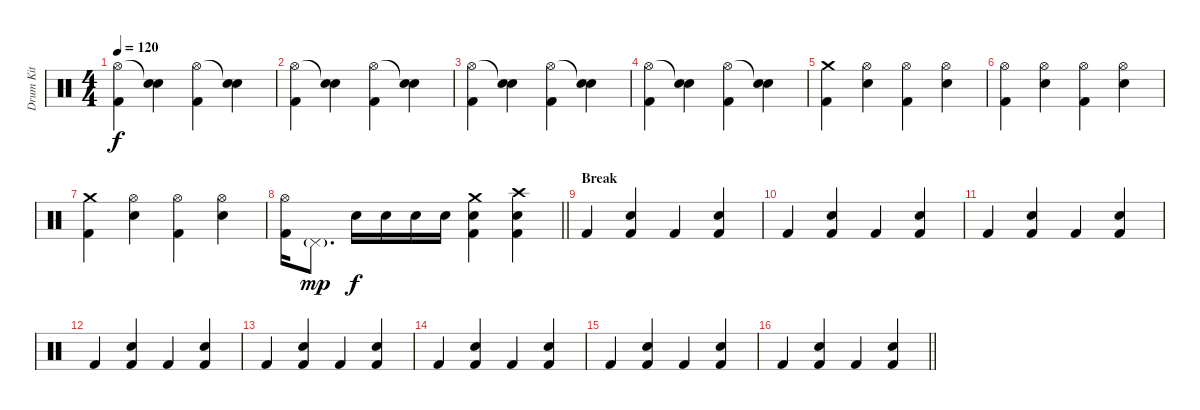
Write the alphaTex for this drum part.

\track ("Drum Kit" "Drum Kit") {instrument percussion}
\staff {score}
\articulation defaults
\ts (4 4)
\tempo 120
\clef neutral
\ks c
("Hi-Hat (open)" "Kick (hit) 2").4{dy f} ("Snare (hit)"{t} "Electric Snare (hit)").4 ("Hi-Hat (open)" "Kick (hit) 2").4 ("Snare (hit)"{t} "Electric Snare (hit)").4 |
("Hi-Hat (open)" "Kick (hit) 2").4 ("Snare (hit)"{t} "Electric Snare (hit)").4 ("Hi-Hat (open)" "Kick (hit) 2").4 ("Snare (hit)"{t} "Electric Snare (hit)").4 |
("Hi-Hat (open)" "Kick (hit) 2").4 ("Snare (hit)"{t} "Electric Snare (hit)").4 ("Hi-Hat (open)" "Kick (hit) 2").4 ("Snare (hit)"{t} "Electric Snare (hit)").4 |
("Hi-Hat (open)" "Kick (hit) 2").4 ("Snare (hit)"{t} "Electric Snare (hit)").4 ("Hi-Hat (open)" "Kick (hit) 2").4 ("Snare (hit)"{t} "Electric Snare (hit)").4 |
("Crash medium (hit)" "Kick (hit) 2").4 ("Hi-Hat (open)" "Electric Snare (hit)").4 ("Hi-Hat (open)" "Kick (hit) 2").4 ("Hi-Hat (open)" "Electric Snare (hit)").4 |
("Hi-Hat (open)" "Kick (hit) 2").4 ("Hi-Hat (open)" "Electric Snare (hit)").4 ("Hi-Hat (open)" "Kick (hit) 2").4 ("Hi-Hat (open)" "Electric Snare (hit)").4 |
("Crash medium (hit)" "Kick (hit) 2").4 ("Hi-Hat (open)" "Electric Snare (hit)").4 ("Hi-Hat (open)" "Kick (hit) 2").4 ("Hi-Hat (open)" "Electric Snare (hit)").4 |
\barLineRight lightlight
("Hi-Hat (open)" "Kick (hit) 2").16 "Pedal Hi-Hat (hit)"{g}.8{d dy mp} "Electric Snare (hit)".16{dy f} "Electric Snare (hit)".16 "Electric Snare (hit)".16 "Electric Snare (hit)".16 ("Crash medium (hit)" "Electric Snare (hit)" "Kick (hit) 2").4 ("Crash high (hit)" "Electric Snare (hit)" "Kick (hit) 2").4 |
\section ("" "Break")
"Kick (hit) 2".4 ("Electric Snare (hit)" "Kick (hit) 2").4 "Kick (hit) 2".4 ("Electric Snare (hit)" "Kick (hit) 2").4 |
"Kick (hit) 2".4 ("Electric Snare (hit)" "Kick (hit) 2").4 "Kick (hit) 2".4 ("Electric Snare (hit)" "Kick (hit) 2").4 |
"Kick (hit) 2".4 ("Electric Snare (hit)" "Kick (hit) 2").4 "Kick (hit) 2".4 ("Electric Snare (hit)" "Kick (hit) 2").4 |
"Kick (hit) 2".4 ("Electric Snare (hit)" "Kick (hit) 2").4 "Kick (hit) 2".4 ("Electric Snare (hit)" "Kick (hit) 2").4 |
"Kick (hit) 2".4 ("Electric Snare (hit)" "Kick (hit) 2").4 "Kick (hit) 2".4 ("Electric Snare (hit)" "Kick (hit) 2").4 |
"Kick (hit) 2".4 ("Electric Snare (hit)" "Kick (hit) 2").4 "Kick (hit) 2".4 ("Electric Snare (hit)" "Kick (hit) 2").4 |
"Kick (hit) 2".4 ("Electric Snare (hit)" "Kick (hit) 2").4 "Kick (hit) 2".4 ("Electric Snare (hit)" "Kick (hit) 2").4 |
\barLineRight lightlight "Kick (hit) 2".4
("Electric Snare (hit)" "Kick (hit) 2").4 "Kick (hit) 2".4 ("Electric Snare (hit)" "Kick (hit) 2").4
